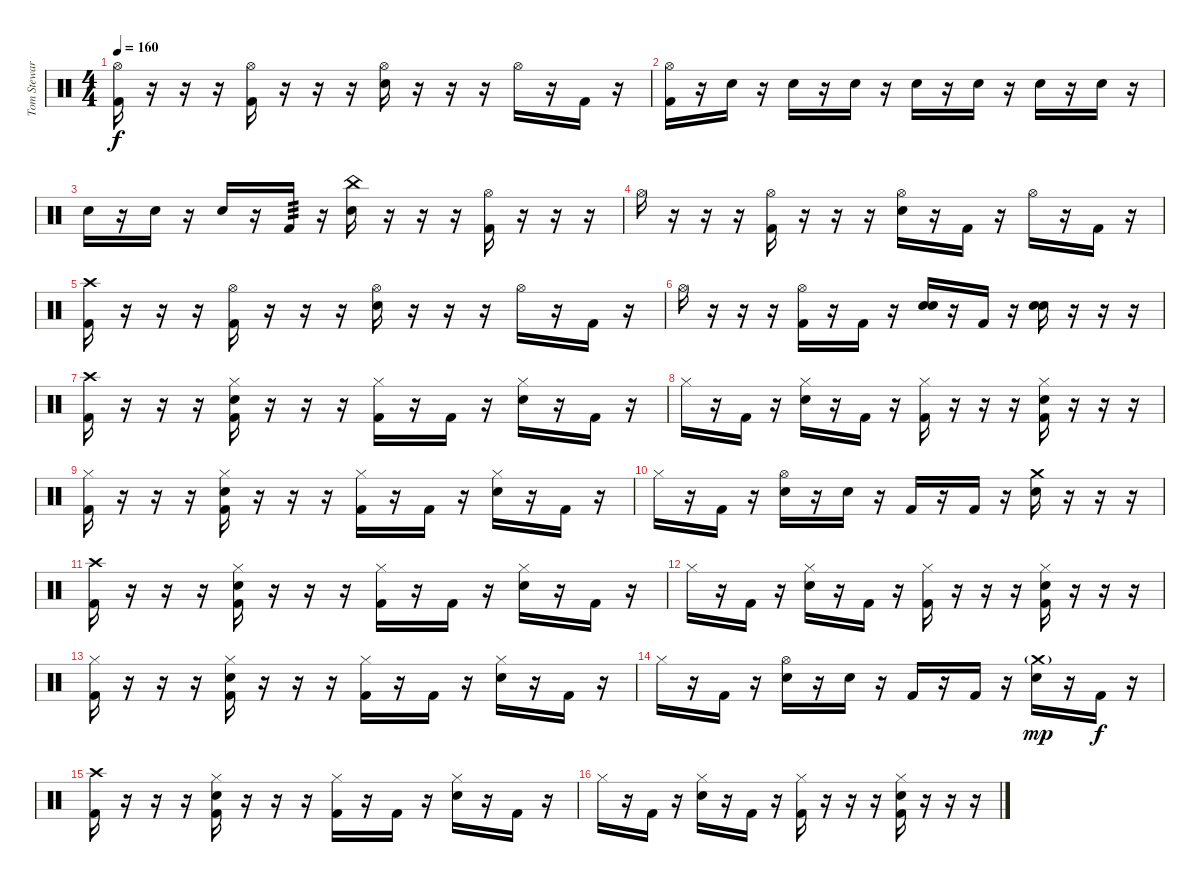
\track ("Tom Steward" "Tom Stewar") {instrument percussion}
\staff {score}
\articulation defaults
\ts (4 4)
\tempo 160
\clef neutral
\ks c
("Hi-Hat (open)" "Kick (hit) 2").16{dy f} r.16 r.16 r.16 ("Hi-Hat (open)" "Kick (hit) 2").16 r.16 r.16 r.16 ("Hi-Hat (open)" "Snare (hit) 2").16 r.16 r.16 r.16 "Hi-Hat (open)".16 r.16 "Kick (hit) 2".16 r.16 |
("Hi-Hat (open)" "Kick (hit) 2").16 r.16 "Snare (hit) 2".16 r.16 "Snare (hit) 2".16 r.16 "Snare (hit) 2".16 r.16 "Snare (hit) 2".16 r.16 "Snare (hit) 2".16 r.16 "Snare (hit) 2".16 r.16 "Snare (hit) 2".16 r.16 |
"Snare (hit) 2".16 r.16 "Snare (hit) 2".16 r.16 "Snare (hit) 2".16 r.16 "Kick (hit) 2".16{tp 3} r.16 ("China (hit)" "Snare (hit) 2").16 r.16 r.16 r.16 ("Hi-Hat (open)" "Kick (hit) 2").16 r.16 r.16 r.16 |
"Hi-Hat (open)".16 r.16 r.16 r.16 ("Hi-Hat (open)" "Kick (hit) 2").16 r.16 r.16 r.16 ("Hi-Hat (open)" "Snare (hit) 2").16 r.16 "Kick (hit) 2".16 r.16 "Hi-Hat (open)".16 r.16 "Kick (hit) 2".16 r.16 |
("Crash high (hit)" "Kick (hit) 2").16 r.16 r.16 r.16 ("Hi-Hat (open)" "Kick (hit) 2").16 r.16 r.16 r.16 ("Hi-Hat (open)" "Snare (hit) 2").16 r.16 r.16 r.16 "Hi-Hat (open)".16 r.16 "Kick (hit) 2".16 r.16 |
"Hi-Hat (open)".16 r.16 r.16 r.16 ("Hi-Hat (open)" "Kick (hit) 2").16 r.16 "Kick (hit) 2".16 r.16 ("Snare (hit) 2" "Snare (hit) 2").16 r.16 "Kick (hit) 2".16 r.16 ("Snare (hit) 2" "Snare (hit) 2").16 r.16 r.16 r.16 |
("Crash high (hit)" "Kick (hit) 2").16 r.16 r.16 r.16 ("Hi-Hat (closed)" "Snare (hit) 2" "Kick (hit) 2").16 r.16 r.16 r.16 ("Hi-Hat (closed)" "Kick (hit) 2").16 r.16 "Kick (hit) 2".16 r.16 ("Hi-Hat (closed)" "Snare (hit) 2").16 r.16 "Kick (hit) 2".16 r.16 |
"Hi-Hat (closed)".16 r.16 "Kick (hit) 2".16 r.16 ("Hi-Hat (closed)" "Snare (hit) 2").16 r.16 "Kick (hit) 2".16 r.16 ("Hi-Hat (closed)" "Kick (hit) 2").16 r.16 r.16 r.16 ("Hi-Hat (closed)" "Snare (hit) 2" "Kick (hit) 2").16 r.16 r.16 r.16 |
("Hi-Hat (closed)" "Kick (hit) 2").16 r.16 r.16 r.16 ("Hi-Hat (closed)" "Snare (hit) 2" "Kick (hit) 2").16 r.16 r.16 r.16 ("Hi-Hat (closed)" "Kick (hit) 2").16 r.16 "Kick (hit) 2".16 r.16 ("Hi-Hat (closed)" "Snare (hit) 2").16 r.16 "Kick (hit) 2".16 r.16 |
"Hi-Hat (closed)".16 r.16 "Kick (hit) 2".16 r.16 ("Hi-Hat (open)" "Snare (hit) 2").16 r.16 "Snare (hit) 2".16 r.16 "Kick (hit) 2".16 r.16 "Kick (hit) 2".16 r.16 ("Crash medium (hit)" "Snare (hit) 2").16 r.16 r.16 r.16 |
("Crash high (hit)" "Kick (hit) 2").16 r.16 r.16 r.16 ("Hi-Hat (closed)" "Snare (hit) 2" "Kick (hit) 2").16 r.16 r.16 r.16 ("Hi-Hat (closed)" "Kick (hit) 2").16 r.16 "Kick (hit) 2".16 r.16 ("Hi-Hat (closed)" "Snare (hit) 2").16 r.16 "Kick (hit) 2".16 r.16 |
"Hi-Hat (closed)".16 r.16 "Kick (hit) 2".16 r.16 ("Hi-Hat (closed)" "Snare (hit) 2").16 r.16 "Kick (hit) 2".16 r.16 ("Hi-Hat (closed)" "Kick (hit) 2").16 r.16 r.16 r.16 ("Hi-Hat (closed)" "Snare (hit) 2" "Kick (hit) 2").16 r.16 r.16 r.16 |
("Hi-Hat (closed)" "Kick (hit) 2").16 r.16 r.16 r.16 ("Hi-Hat (closed)" "Snare (hit) 2" "Kick (hit) 2").16 r.16 r.16 r.16 ("Hi-Hat (closed)" "Kick (hit) 2").16 r.16 "Kick (hit) 2".16 r.16 ("Hi-Hat (closed)" "Snare (hit) 2").16 r.16 "Kick (hit) 2".16 r.16 |
"Hi-Hat (closed)".16 r.16 "Kick (hit) 2".16 r.16 ("Hi-Hat (open)" "Snare (hit) 2").16 r.16 "Snare (hit) 2".16 r.16 "Kick (hit) 2".16 r.16 "Kick (hit) 2".16 r.16 ("Crash medium (hit)"{g} "Snare (hit) 2").16{dy mp} r.16 "Kick (hit) 2".16{dy f} r.16 |
("Crash high (hit)" "Kick (hit) 2").16 r.16 r.16 r.16 ("Hi-Hat (closed)" "Snare (hit) 2" "Kick (hit) 2").16 r.16 r.16 r.16 ("Hi-Hat (closed)" "Kick (hit) 2").16 r.16 "Kick (hit) 2".16 r.16 ("Hi-Hat (closed)" "Snare (hit) 2").16 r.16 "Kick (hit) 2".16 r.16 |
"Hi-Hat (closed)".16 r.16 "Kick (hit) 2".16 r.16 ("Hi-Hat (closed)" "Snare (hit) 2").16 r.16 "Kick (hit) 2".16 r.16 ("Hi-Hat (closed)" "Kick (hit) 2").16 r.16 r.16 r.16 ("Hi-Hat (closed)" "Snare (hit) 2" "Kick (hit) 2").16 r.16 r.16 r.16
